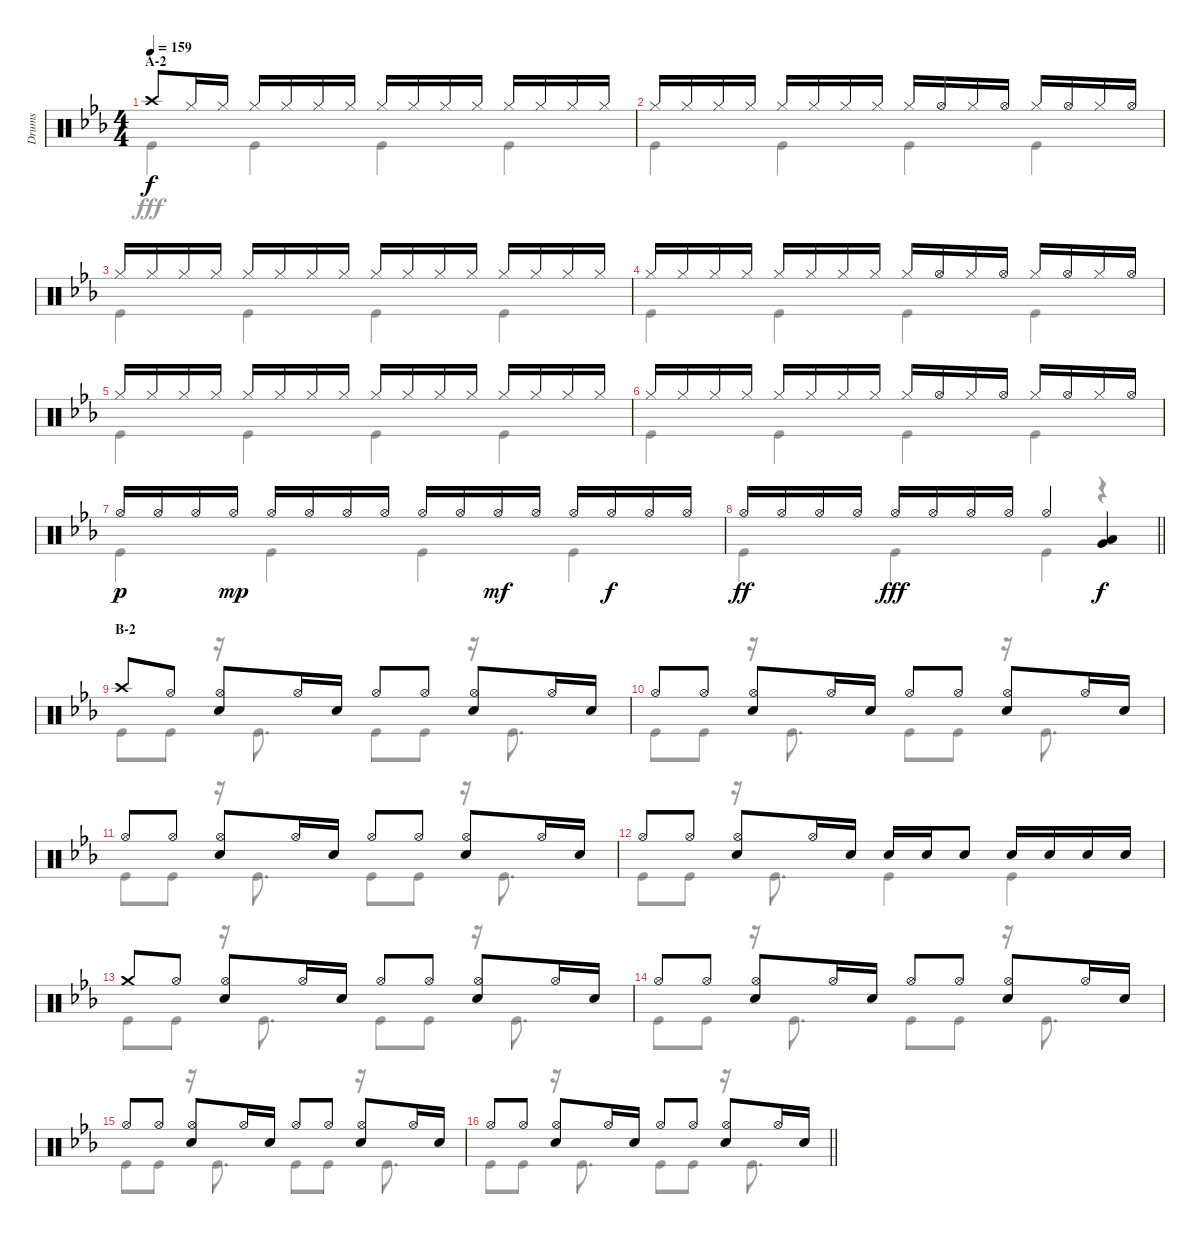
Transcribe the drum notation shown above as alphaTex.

\track ("Drums" "Drums") {instrument percussion}
\staff {score}
\articulation defaults
\voice
\ts (4 4)
\section ("" "A-2")
\tempo 159
\clef neutral
\ks eb "Crash high (hit)".8{dy f} "Hi-Hat (closed)".16 "Hi-Hat (closed)".16 "Hi-Hat (closed)".16 "Hi-Hat (closed)".16 "Hi-Hat (closed)".16 "Hi-Hat (closed)".16 "Hi-Hat (closed)".16 "Hi-Hat (closed)".16 "Hi-Hat (closed)".16 "Hi-Hat (closed)".16 "Hi-Hat (closed)".16 "Hi-Hat (closed)".16 "Hi-Hat (closed)".16 "Hi-Hat (closed)".16
|
"Hi-Hat (closed)".16 "Hi-Hat (closed)".16 "Hi-Hat (closed)".16 "Hi-Hat (closed)".16 "Hi-Hat (closed)".16 "Hi-Hat (closed)".16 "Hi-Hat (closed)".16 "Hi-Hat (closed)".16 "Hi-Hat (closed)".16 "Hi-Hat (open)".16 "Hi-Hat (closed)".16 "Hi-Hat (open)".16 "Hi-Hat (closed)".16 "Hi-Hat (open)".16 "Hi-Hat (closed)".16 "Hi-Hat (open)".16 |
"Hi-Hat (closed)".16 "Hi-Hat (closed)".16 "Hi-Hat (closed)".16 "Hi-Hat (closed)".16 "Hi-Hat (closed)".16 "Hi-Hat (closed)".16 "Hi-Hat (closed)".16 "Hi-Hat (closed)".16 "Hi-Hat (closed)".16 "Hi-Hat (closed)".16 "Hi-Hat (closed)".16 "Hi-Hat (closed)".16 "Hi-Hat (closed)".16 "Hi-Hat (closed)".16 "Hi-Hat (closed)".16 "Hi-Hat (closed)".16 |
"Hi-Hat (closed)".16 "Hi-Hat (closed)".16 "Hi-Hat (closed)".16 "Hi-Hat (closed)".16 "Hi-Hat (closed)".16 "Hi-Hat (closed)".16 "Hi-Hat (closed)".16 "Hi-Hat (closed)".16 "Hi-Hat (closed)".16 "Hi-Hat (open)".16 "Hi-Hat (closed)".16 "Hi-Hat (open)".16 "Hi-Hat (closed)".16 "Hi-Hat (open)".16 "Hi-Hat (closed)".16 "Hi-Hat (open)".16 |
"Hi-Hat (closed)".16 "Hi-Hat (closed)".16 "Hi-Hat (closed)".16 "Hi-Hat (closed)".16 "Hi-Hat (closed)".16 "Hi-Hat (closed)".16 "Hi-Hat (closed)".16 "Hi-Hat (closed)".16 "Hi-Hat (closed)".16 "Hi-Hat (closed)".16 "Hi-Hat (closed)".16 "Hi-Hat (closed)".16 "Hi-Hat (closed)".16 "Hi-Hat (closed)".16 "Hi-Hat (closed)".16 "Hi-Hat (closed)".16 |
"Hi-Hat (closed)".16 "Hi-Hat (closed)".16 "Hi-Hat (closed)".16 "Hi-Hat (closed)".16 "Hi-Hat (closed)".16 "Hi-Hat (closed)".16 "Hi-Hat (closed)".16 "Hi-Hat (closed)".16 "Hi-Hat (closed)".16 "Hi-Hat (open)".16 "Hi-Hat (closed)".16 "Hi-Hat (open)".16 "Hi-Hat (closed)".16 "Hi-Hat (open)".16 "Hi-Hat (closed)".16 "Hi-Hat (open)".16 |
"Hi-Hat (open)".16{dy p} "Hi-Hat (open)".16 "Hi-Hat (open)".16 "Hi-Hat (open)".16{dy mp} "Hi-Hat (open)".16 "Hi-Hat (open)".16 "Hi-Hat (open)".16 "Hi-Hat (open)".16 "Hi-Hat (open)".16 "Hi-Hat (open)".16 "Hi-Hat (open)".16{dy mf} "Hi-Hat (open)".16 "Hi-Hat (open)".16 "Hi-Hat (open)".16{dy f} "Hi-Hat (open)".16 "Hi-Hat (open)".16 |
\barLineRight lightlight "Hi-Hat (open)".16{dy ff} "Hi-Hat (open)".16 "Hi-Hat (open)".16 "Hi-Hat (open)".16 "Hi-Hat (open)".16{dy fff} "Hi-Hat (open)".16 "Hi-Hat (open)".16 "Hi-Hat (open)".16 "Hi-Hat (open)".4
("Low Tom (hit)" "Very Low Tom (hit)").4{dy f} |
\section ("" "B-2")
"Crash high (hit)".8 "Hi-Hat (open)".8 ("Hi-Hat (open)" "Snare (hit) 2").8 "Hi-Hat (open)".16 "Snare (hit) 2".16 "Hi-Hat (open)".8 "Hi-Hat (open)".8 ("Hi-Hat (open)" "Snare (hit) 2").8 "Hi-Hat (open)".16 "Snare (hit) 2".16 |
"Hi-Hat (open)".8 "Hi-Hat (open)".8 ("Hi-Hat (open)" "Snare (hit) 2").8 "Hi-Hat (open)".16 "Snare (hit) 2".16 "Hi-Hat (open)".8 "Hi-Hat (open)".8 ("Hi-Hat (open)" "Snare (hit) 2").8 "Hi-Hat (open)".16 "Snare (hit) 2".16 |
"Hi-Hat (open)".8 "Hi-Hat (open)".8 ("Hi-Hat (open)" "Snare (hit) 2").8 "Hi-Hat (open)".16 "Snare (hit) 2".16 "Hi-Hat (open)".8 "Hi-Hat (open)".8 ("Hi-Hat (open)" "Snare (hit) 2").8 "Hi-Hat (open)".16 "Snare (hit) 2".16 |
"Hi-Hat (open)".8 "Hi-Hat (open)".8 ("Hi-Hat (open)" "Snare (hit) 2").8 "Hi-Hat (open)".16 "Snare (hit) 2".16 "Snare (hit) 2".16 "Snare (hit) 2".16 "Snare (hit) 2".8 "Snare (hit) 2".16 "Snare (hit) 2".16 "Snare (hit) 2".16 "Snare (hit) 2".16 |
"Crash medium (hit)".8 "Hi-Hat (open)".8 ("Hi-Hat (open)" "Snare (hit) 2").8 "Hi-Hat (open)".16 "Snare (hit) 2".16 "Hi-Hat (open)".8 "Hi-Hat (open)".8 ("Hi-Hat (open)" "Snare (hit) 2").8 "Hi-Hat (open)".16 "Snare (hit) 2".16 |
"Hi-Hat (open)".8 "Hi-Hat (open)".8 ("Hi-Hat (open)" "Snare (hit) 2").8 "Hi-Hat (open)".16 "Snare (hit) 2".16 "Hi-Hat (open)".8 "Hi-Hat (open)".8 ("Hi-Hat (open)" "Snare (hit) 2").8 "Hi-Hat (open)".16 "Snare (hit) 2".16 |
"Hi-Hat (open)".8 "Hi-Hat (open)".8 ("Hi-Hat (open)" "Snare (hit) 2").8 "Hi-Hat (open)".16 "Snare (hit) 2".16 "Hi-Hat (open)".8 "Hi-Hat (open)".8 ("Hi-Hat (open)" "Snare (hit) 2").8 "Hi-Hat (open)".16 "Snare (hit) 2".16 |
\barLineRight lightlight "Hi-Hat (open)".8 "Hi-Hat (open)".8
("Hi-Hat (open)" "Snare (hit) 2").8 "Hi-Hat (open)".16 "Snare (hit) 2".16 "Hi-Hat (open)".8 "Hi-Hat (open)".8 ("Hi-Hat (open)" "Snare (hit) 2").8 "Hi-Hat (open)".16 "Snare (hit) 2".16
\voice
\clef neutral
\ottava regular
\simile none
\ks eb "Kick (hit)".4{dy fff} "Kick (hit)".4 "Kick (hit)".4 "Kick (hit)".4
|
"Kick (hit)".4 "Kick (hit)".4 "Kick (hit)".4 "Kick (hit)".4 |
"Kick (hit)".4 "Kick (hit)".4 "Kick (hit)".4 "Kick (hit)".4 |
"Kick (hit)".4 "Kick (hit)".4 "Kick (hit)".4 "Kick (hit)".4 |
"Kick (hit)".4 "Kick (hit)".4 "Kick (hit)".4 "Kick (hit)".4 |
"Kick (hit)".4 "Kick (hit)".4 "Kick (hit)".4 "Kick (hit)".4 |
"Kick (hit)".4 "Kick (hit)".4 "Kick (hit)".4 "Kick (hit)".4 |
\barLineRight lightlight "Kick (hit)".4 "Kick (hit)".4 "Kick (hit)".4
r.4 |
"Kick (hit)".8 "Kick (hit)".8 r.16 "Kick (hit)".8{d} "Kick (hit)".8 "Kick (hit)".8 r.16 "Kick (hit)".8{d} |
"Kick (hit)".8 "Kick (hit)".8 r.16 "Kick (hit)".8{d} "Kick (hit)".8 "Kick (hit)".8 r.16 "Kick (hit)".8{d} |
"Kick (hit)".8 "Kick (hit)".8 r.16 "Kick (hit)".8{d} "Kick (hit)".8 "Kick (hit)".8 r.16 "Kick (hit)".8{d} |
"Kick (hit)".8 "Kick (hit)".8 r.16 "Kick (hit)".8{d} "Kick (hit)".4 "Kick (hit)".4 |
"Kick (hit)".8 "Kick (hit)".8 r.16 "Kick (hit)".8{d} "Kick (hit)".8 "Kick (hit)".8 r.16 "Kick (hit)".8{d} |
"Kick (hit)".8 "Kick (hit)".8 r.16 "Kick (hit)".8{d} "Kick (hit)".8 "Kick (hit)".8 r.16 "Kick (hit)".8{d} |
"Kick (hit)".8 "Kick (hit)".8 r.16 "Kick (hit)".8{d} "Kick (hit)".8 "Kick (hit)".8 r.16 "Kick (hit)".8{d} |
\barLineRight lightlight "Kick (hit)".8 "Kick (hit)".8
r.16 "Kick (hit)".8{d} "Kick (hit)".8 "Kick (hit)".8 r.16 "Kick (hit)".8{d}
